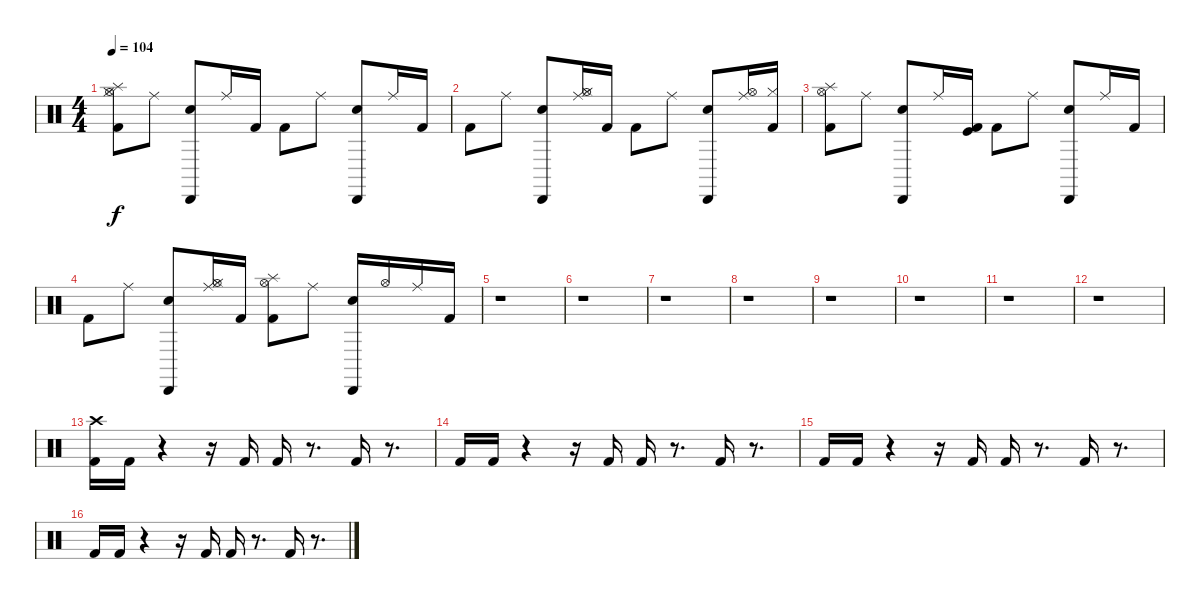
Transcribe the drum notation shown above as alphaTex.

\track "" {instrument percussion}
\staff {score}
\articulation defaults
\ts (4 4)
\tempo 104
\clef neutral
\ks c
("Splash (hit)" "Hi-Hat (closed)" "Hi-Hat (open)" "Kick (hit) 2").8{dy f} "Ride (middle)".8 ("Hand Clap (hit)" "Cabasa (hit)").8 "Ride (middle)".16 "Kick (hit) 2".16 "Kick (hit) 2".8 "Ride (middle)".8 ("Hand Clap (hit)" "Cabasa (hit)").8 "Ride (middle)".16 "Kick (hit) 2".16 |
"Kick (hit) 2".8 "Ride (middle)".8 ("Hand Clap (hit)" "Cabasa (hit)").8 ("Hi-Hat (closed)" "Hi-Hat (open)" "Ride (middle)").16 "Kick (hit) 2".16 "Kick (hit) 2".8 "Ride (middle)".8 ("Hand Clap (hit)" "Cabasa (hit)").8 ("Hi-Hat (open)" "Ride (middle)").16 ("Hi-Hat (closed)" "Kick (hit) 2").16 |
("Splash (hit)" "Hi-Hat (open)" "Kick (hit) 2").8 "Ride (middle)".8 ("Hand Clap (hit)" "Cabasa (hit)").8 "Ride (middle)".16 ("Kick (hit) 2" "Kick (hit)").16 "Kick (hit) 2".8 "Ride (middle)".8 ("Hand Clap (hit)" "Cabasa (hit)").8 "Ride (middle)".16 "Kick (hit) 2".16 |
"Kick (hit) 2".8 "Ride (middle)".8 ("Cabasa (hit)" "Hand Clap (hit)").8 ("Hi-Hat (closed)" "Hi-Hat (open)" "Ride (middle)").16 "Kick (hit) 2".16 ("Splash (hit)" "Hi-Hat (open)" "Kick (hit) 2").8 "Ride (middle)".8 ("Cabasa (hit)" "Hand Clap (hit)").16 "Hi-Hat (open)".16 "Ride (middle)".16 "Kick (hit) 2".16 |
r.1 |
r.1 |
r.1 |
r.1 |
r.1 |
r.1 |
r.1 |
r.1 |
("Kick (hit) 2" "Crash high (hit)").16 "Kick (hit) 2".16 r.4 r.16 "Kick (hit) 2".16 "Kick (hit) 2".16 r.8{d} "Kick (hit) 2".16 r.8{d} |
"Kick (hit) 2".16 "Kick (hit) 2".16 r.4 r.16 "Kick (hit) 2".16 "Kick (hit) 2".16 r.8{d} "Kick (hit) 2".16 r.8{d} |
"Kick (hit) 2".16 "Kick (hit) 2".16 r.4 r.16 "Kick (hit) 2".16 "Kick (hit) 2".16 r.8{d} "Kick (hit) 2".16 r.8{d} |
"Kick (hit) 2".16 "Kick (hit) 2".16 r.4 r.16 "Kick (hit) 2".16 "Kick (hit) 2".16 r.8{d} "Kick (hit) 2".16 r.8{d}
